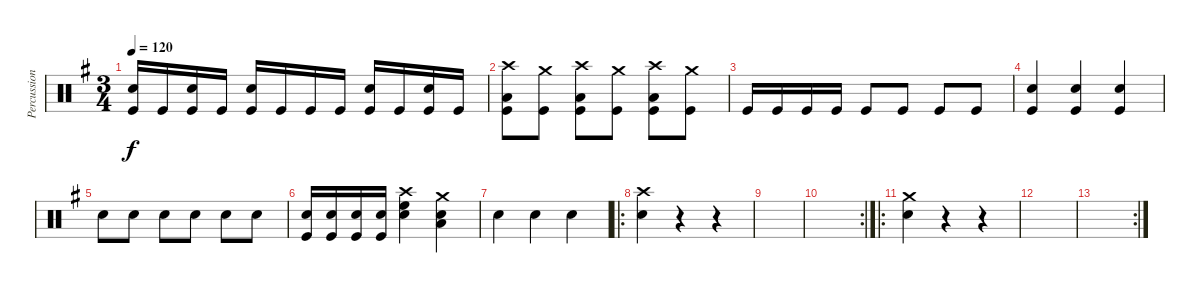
\track ("Percussion" "Percussion") {instrument percussion}
\staff {score}
\articulation defaults
\ts (3 4)
\tempo 120
\clef neutral
\ks eminor
("Snare (hit) 2" "Kick (hit)").16{dy f} "Kick (hit)".16 ("Snare (hit) 2" "Kick (hit)").16 "Kick (hit)".16 ("Snare (hit) 2" "Kick (hit)").16 "Kick (hit)".16 "Kick (hit)".16 "Kick (hit)".16 ("Snare (hit) 2" "Kick (hit)").16 "Kick (hit)".16 ("Snare (hit) 2" "Kick (hit)").16 "Kick (hit)".16 |
("Low Tom (hit)" "Crash high (hit)" "Kick (hit)").8 ("Crash medium (hit)" "Kick (hit)").8 ("Low Tom (hit)" "Crash high (hit)" "Kick (hit)").8 ("Crash medium (hit)" "Kick (hit)").8 ("Low Tom (hit)" "Crash high (hit)" "Kick (hit)").8 ("Crash medium (hit)" "Kick (hit)").8 |
"Kick (hit)".16 "Kick (hit)".16 "Kick (hit)".16 "Kick (hit)".16 "Kick (hit)".8 "Kick (hit)".8 "Kick (hit)".8 "Kick (hit)".8 |
("Snare (hit) 2" "Kick (hit)").4 ("Snare (hit) 2" "Kick (hit)").4 ("Snare (hit) 2" "Kick (hit)").4 |
"Snare (hit) 2".8 "Snare (hit) 2".8 "Snare (hit) 2".8 "Snare (hit) 2".8 "Snare (hit) 2".8 "Snare (hit) 2".8 |
("Snare (hit) 2" "Kick (hit)").16 ("Snare (hit) 2" "Kick (hit)").16 ("Snare (hit) 2" "Kick (hit)").16 ("Snare (hit) 2" "Kick (hit)").16 ("Crash high (hit)" "High Floor Tom (hit)" "Electric Snare (hit)").4 ("Crash medium (hit)" "Low Floor Tom (hit)" "Electric Snare (hit)").4 |
"Snare (hit) 2".4 "Snare (hit) 2".4 "Snare (hit) 2".4 |
\ro
("Crash high (hit)" "Snare (hit) 2").4 r.4 r.4 |
|
\rc 2
|
\ro
("Crash medium (hit)" "Snare (hit) 2").4 r.4 r.4 |
|
\rc 2
